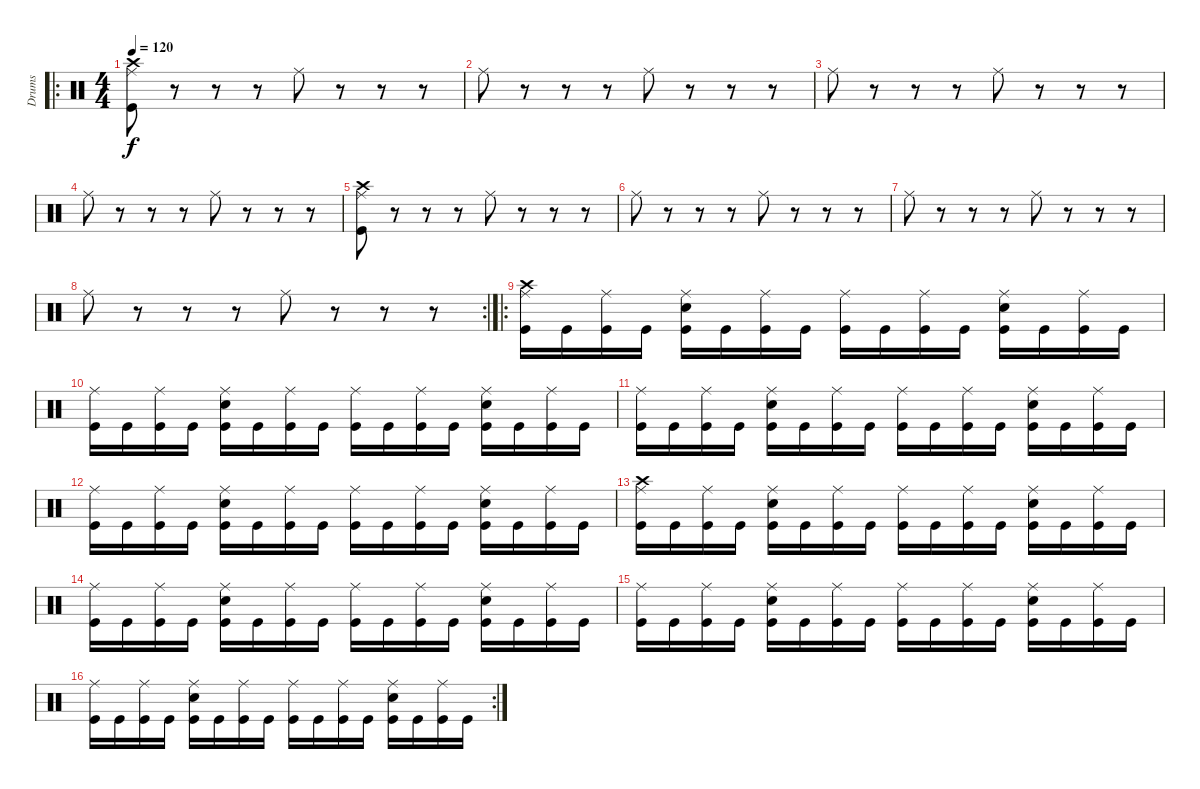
\track ("Drums" "Drums") {instrument percussion}
\staff {score}
\articulation defaults
\ro
\ts (4 4)
\tempo 120
\clef neutral
\ks c
("Crash high (hit)" "Ride (middle)" "Kick (hit)").8{dy f} r.8 r.8 r.8 "Ride (middle)".8 r.8 r.8 r.8 |
"Ride (middle)".8 r.8 r.8 r.8 "Ride (middle)".8 r.8 r.8 r.8 |
"Ride (middle)".8 r.8 r.8 r.8 "Ride (middle)".8 r.8 r.8 r.8 |
"Ride (middle)".8 r.8 r.8 r.8 "Ride (middle)".8 r.8 r.8 r.8 |
("Crash high (hit)" "Ride (middle)" "Kick (hit)").8 r.8 r.8 r.8 "Ride (middle)".8 r.8 r.8 r.8 |
"Ride (middle)".8 r.8 r.8 r.8 "Ride (middle)".8 r.8 r.8 r.8 |
"Ride (middle)".8 r.8 r.8 r.8 "Ride (middle)".8 r.8 r.8 r.8 |
\rc 2 "Ride (middle)".8
r.8 r.8 r.8 "Ride (middle)".8 r.8 r.8 r.8 |
\ro
("Crash high (hit)" "Ride (middle)" "Kick (hit)").16 "Kick (hit)".16 ("Ride (middle)" "Kick (hit)").16 "Kick (hit)".16 ("Ride (middle)" "Electric Snare (hit)" "Kick (hit)").16 "Kick (hit)".16 ("Ride (middle)" "Kick (hit)").16 "Kick (hit)".16 ("Ride (middle)" "Kick (hit)").16 "Kick (hit)".16 ("Ride (middle)" "Kick (hit)").16 "Kick (hit)".16 ("Ride (middle)" "Electric Snare (hit)" "Kick (hit)").16 "Kick (hit)".16 ("Ride (middle)" "Kick (hit)").16 "Kick (hit)".16 |
("Ride (middle)" "Kick (hit)").16 "Kick (hit)".16 ("Ride (middle)" "Kick (hit)").16 "Kick (hit)".16 ("Ride (middle)" "Electric Snare (hit)" "Kick (hit)").16 "Kick (hit)".16 ("Ride (middle)" "Kick (hit)").16 "Kick (hit)".16 ("Ride (middle)" "Kick (hit)").16 "Kick (hit)".16 ("Ride (middle)" "Kick (hit)").16 "Kick (hit)".16 ("Ride (middle)" "Electric Snare (hit)" "Kick (hit)").16 "Kick (hit)".16 ("Ride (middle)" "Kick (hit)").16 "Kick (hit)".16 |
("Ride (middle)" "Kick (hit)").16 "Kick (hit)".16 ("Ride (middle)" "Kick (hit)").16 "Kick (hit)".16 ("Ride (middle)" "Electric Snare (hit)" "Kick (hit)").16 "Kick (hit)".16 ("Ride (middle)" "Kick (hit)").16 "Kick (hit)".16 ("Ride (middle)" "Kick (hit)").16 "Kick (hit)".16 ("Ride (middle)" "Kick (hit)").16 "Kick (hit)".16 ("Ride (middle)" "Electric Snare (hit)" "Kick (hit)").16 "Kick (hit)".16 ("Ride (middle)" "Kick (hit)").16 "Kick (hit)".16 |
("Ride (middle)" "Kick (hit)").16 "Kick (hit)".16 ("Ride (middle)" "Kick (hit)").16 "Kick (hit)".16 ("Ride (middle)" "Electric Snare (hit)" "Kick (hit)").16 "Kick (hit)".16 ("Ride (middle)" "Kick (hit)").16 "Kick (hit)".16 ("Ride (middle)" "Kick (hit)").16 "Kick (hit)".16 ("Ride (middle)" "Kick (hit)").16 "Kick (hit)".16 ("Ride (middle)" "Electric Snare (hit)" "Kick (hit)").16 "Kick (hit)".16 ("Ride (middle)" "Kick (hit)").16 "Kick (hit)".16 |
("Crash high (hit)" "Ride (middle)" "Kick (hit)").16 "Kick (hit)".16 ("Ride (middle)" "Kick (hit)").16 "Kick (hit)".16 ("Ride (middle)" "Electric Snare (hit)" "Kick (hit)").16 "Kick (hit)".16 ("Ride (middle)" "Kick (hit)").16 "Kick (hit)".16 ("Ride (middle)" "Kick (hit)").16 "Kick (hit)".16 ("Ride (middle)" "Kick (hit)").16 "Kick (hit)".16 ("Ride (middle)" "Electric Snare (hit)" "Kick (hit)").16 "Kick (hit)".16 ("Ride (middle)" "Kick (hit)").16 "Kick (hit)".16 |
("Ride (middle)" "Kick (hit)").16 "Kick (hit)".16 ("Ride (middle)" "Kick (hit)").16 "Kick (hit)".16 ("Ride (middle)" "Electric Snare (hit)" "Kick (hit)").16 "Kick (hit)".16 ("Ride (middle)" "Kick (hit)").16 "Kick (hit)".16 ("Ride (middle)" "Kick (hit)").16 "Kick (hit)".16 ("Ride (middle)" "Kick (hit)").16 "Kick (hit)".16 ("Ride (middle)" "Electric Snare (hit)" "Kick (hit)").16 "Kick (hit)".16 ("Ride (middle)" "Kick (hit)").16 "Kick (hit)".16 |
("Ride (middle)" "Kick (hit)").16 "Kick (hit)".16 ("Ride (middle)" "Kick (hit)").16 "Kick (hit)".16 ("Ride (middle)" "Electric Snare (hit)" "Kick (hit)").16 "Kick (hit)".16 ("Ride (middle)" "Kick (hit)").16 "Kick (hit)".16 ("Ride (middle)" "Kick (hit)").16 "Kick (hit)".16 ("Ride (middle)" "Kick (hit)").16 "Kick (hit)".16 ("Ride (middle)" "Electric Snare (hit)" "Kick (hit)").16 "Kick (hit)".16 ("Ride (middle)" "Kick (hit)").16 "Kick (hit)".16 |
\rc 2
("Ride (middle)" "Kick (hit)").16 "Kick (hit)".16 ("Ride (middle)" "Kick (hit)").16 "Kick (hit)".16 ("Ride (middle)" "Electric Snare (hit)" "Kick (hit)").16 "Kick (hit)".16 ("Ride (middle)" "Kick (hit)").16 "Kick (hit)".16 ("Ride (middle)" "Kick (hit)").16 "Kick (hit)".16 ("Ride (middle)" "Kick (hit)").16 "Kick (hit)".16 ("Ride (middle)" "Electric Snare (hit)" "Kick (hit)").16 "Kick (hit)".16 ("Ride (middle)" "Kick (hit)").16 "Kick (hit)".16
